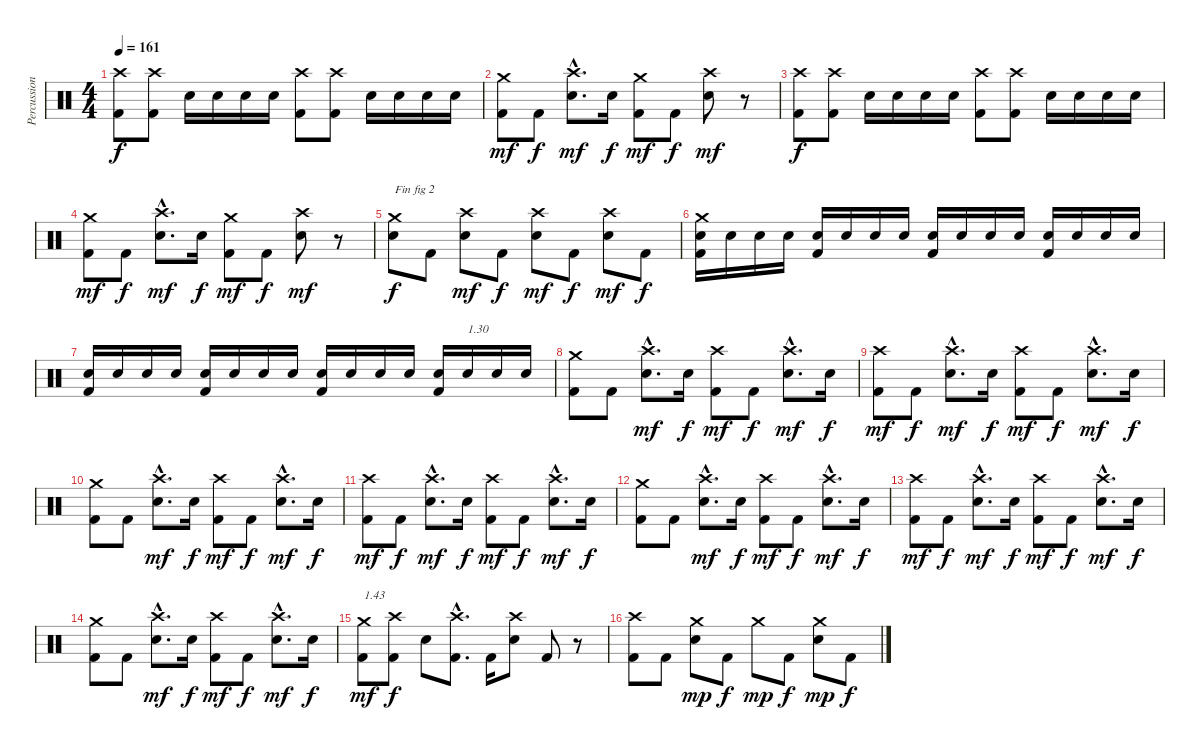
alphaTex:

\track ("Percussions" "Percussion") {instrument percussion}
\staff {score}
\articulation defaults
\ts (4 4)
\tempo 161
\clef neutral
\ks c
("Kick (hit) 2" "Crash high (hit)").8{dy f} ("Kick (hit) 2" "Crash high (hit)").8 "Electric Snare (hit)".16 "Electric Snare (hit)".16 "Electric Snare (hit)".16 "Electric Snare (hit)".16 ("Kick (hit) 2" "Crash high (hit)").8 ("Kick (hit) 2" "Crash high (hit)").8 "Electric Snare (hit)".16 "Electric Snare (hit)".16 "Electric Snare (hit)".16 "Electric Snare (hit)".16 |
("Kick (hit) 2" "Crash medium (hit)").8{dy mf} "Kick (hit) 2".8{dy f} ("Electric Snare (hit)"{hac} "Crash high (hit)"{hac}).8{d dy mf} "Electric Snare (hit)".16{dy f} ("Kick (hit) 2" "Crash medium (hit)").8{dy mf} "Kick (hit) 2".8{dy f} ("Electric Snare (hit)" "Crash high (hit)").8{dy mf} r.8 |
("Kick (hit) 2" "Crash high (hit)").8{dy f} ("Kick (hit) 2" "Crash high (hit)").8 "Electric Snare (hit)".16 "Electric Snare (hit)".16 "Electric Snare (hit)".16 "Electric Snare (hit)".16 ("Kick (hit) 2" "Crash high (hit)").8 ("Kick (hit) 2" "Crash high (hit)").8 "Electric Snare (hit)".16 "Electric Snare (hit)".16 "Electric Snare (hit)".16 "Electric Snare (hit)".16 |
("Kick (hit) 2" "Crash medium (hit)").8{dy mf} "Kick (hit) 2".8{dy f} ("Electric Snare (hit)"{hac} "Crash high (hit)"{hac}).8{d dy mf} "Electric Snare (hit)".16{dy f} ("Kick (hit) 2" "Crash medium (hit)").8{dy mf} "Kick (hit) 2".8{dy f} ("Electric Snare (hit)" "Crash high (hit)").8{dy mf} r.8 |
("Electric Snare (hit)" "Crash medium (hit)").8{txt "Fin fig 2" dy f} "Kick (hit) 2".8 ("Electric Snare (hit)" "Crash high (hit)").8{dy mf} "Kick (hit) 2".8{dy f} ("Electric Snare (hit)" "Crash high (hit)").8{dy mf} "Kick (hit) 2".8{dy f} ("Electric Snare (hit)" "Crash high (hit)").8{dy mf} "Kick (hit) 2".8{dy f} |
("Electric Snare (hit)" "Kick (hit) 2" "Crash medium (hit)").16 "Electric Snare (hit)".16 "Electric Snare (hit)".16 "Electric Snare (hit)".16 ("Electric Snare (hit)" "Kick (hit) 2").16 "Electric Snare (hit)".16 "Electric Snare (hit)".16 "Electric Snare (hit)".16 ("Electric Snare (hit)" "Kick (hit) 2").16 "Electric Snare (hit)".16 "Electric Snare (hit)".16 "Electric Snare (hit)".16 ("Electric Snare (hit)" "Kick (hit) 2").16 "Electric Snare (hit)".16 "Electric Snare (hit)".16 "Electric Snare (hit)".16 |
("Electric Snare (hit)" "Kick (hit) 2").16 "Electric Snare (hit)".16 "Electric Snare (hit)".16 "Electric Snare (hit)".16 ("Electric Snare (hit)" "Kick (hit) 2").16 "Electric Snare (hit)".16 "Electric Snare (hit)".16 "Electric Snare (hit)".16 ("Electric Snare (hit)" "Kick (hit) 2").16 "Electric Snare (hit)".16 "Electric Snare (hit)".16 "Electric Snare (hit)".16 ("Electric Snare (hit)" "Kick (hit) 2").16 "Electric Snare (hit)".16{txt "1.30"} "Electric Snare (hit)".16 "Electric Snare (hit)".16 |
("Kick (hit) 2" "Crash medium (hit)").8 "Kick (hit) 2".8 ("Electric Snare (hit)"{hac} "Crash high (hit)"{hac}).8{d dy mf} "Electric Snare (hit)".16{dy f} ("Kick (hit) 2" "Crash high (hit)").8{dy mf} "Kick (hit) 2".8{dy f} ("Electric Snare (hit)"{hac} "Crash high (hit)"{hac}).8{d dy mf} "Electric Snare (hit)".16{dy f} |
("Kick (hit) 2" "Crash high (hit)").8{dy mf} "Kick (hit) 2".8{dy f} ("Electric Snare (hit)"{hac} "Crash high (hit)"{hac}).8{d dy mf} "Electric Snare (hit)".16{dy f} ("Kick (hit) 2" "Crash high (hit)").8{dy mf} "Kick (hit) 2".8{dy f} ("Electric Snare (hit)"{hac} "Crash high (hit)"{hac}).8{d dy mf} "Electric Snare (hit)".16{dy f} |
("Kick (hit) 2" "Crash medium (hit)").8 "Kick (hit) 2".8 ("Electric Snare (hit)"{hac} "Crash high (hit)"{hac}).8{d dy mf} "Electric Snare (hit)".16{dy f} ("Kick (hit) 2" "Crash high (hit)").8{dy mf} "Kick (hit) 2".8{dy f} ("Electric Snare (hit)"{hac} "Crash high (hit)"{hac}).8{d dy mf} "Electric Snare (hit)".16{dy f} |
("Kick (hit) 2" "Crash high (hit)").8{dy mf} "Kick (hit) 2".8{dy f} ("Electric Snare (hit)"{hac} "Crash high (hit)"{hac}).8{d dy mf} "Electric Snare (hit)".16{dy f} ("Kick (hit) 2" "Crash high (hit)").8{dy mf} "Kick (hit) 2".8{dy f} ("Electric Snare (hit)"{hac} "Crash high (hit)"{hac}).8{d dy mf} "Electric Snare (hit)".16{dy f} |
("Kick (hit) 2" "Crash medium (hit)").8 "Kick (hit) 2".8 ("Electric Snare (hit)"{hac} "Crash high (hit)"{hac}).8{d dy mf} "Electric Snare (hit)".16{dy f} ("Kick (hit) 2" "Crash high (hit)").8{dy mf} "Kick (hit) 2".8{dy f} ("Electric Snare (hit)"{hac} "Crash high (hit)"{hac}).8{d dy mf} "Electric Snare (hit)".16{dy f} |
("Kick (hit) 2" "Crash high (hit)").8{dy mf} "Kick (hit) 2".8{dy f} ("Electric Snare (hit)"{hac} "Crash high (hit)"{hac}).8{d dy mf} "Electric Snare (hit)".16{dy f} ("Kick (hit) 2" "Crash high (hit)").8{dy mf} "Kick (hit) 2".8{dy f} ("Electric Snare (hit)"{hac} "Crash high (hit)"{hac}).8{d dy mf} "Electric Snare (hit)".16{dy f} |
("Kick (hit) 2" "Crash medium (hit)").8 "Kick (hit) 2".8 ("Electric Snare (hit)"{hac} "Crash high (hit)"{hac}).8{d dy mf} "Electric Snare (hit)".16{dy f} ("Kick (hit) 2" "Crash high (hit)").8{dy mf} "Kick (hit) 2".8{dy f} ("Electric Snare (hit)"{hac} "Crash high (hit)"{hac}).8{d dy mf} "Electric Snare (hit)".16{dy f} |
("Kick (hit) 2" "Crash medium (hit)").8{txt "1.43" dy mf} ("Kick (hit) 2" "Crash high (hit)").8{dy f} "Electric Snare (hit)".8 ("Kick (hit) 2"{hac} "Crash high (hit)"{hac}).8{d} "Kick (hit) 2".16 ("Electric Snare (hit)" "Crash high (hit)").8 "Kick (hit) 2".8 r.8 |
("Kick (hit) 2" "Crash high (hit)").8 "Kick (hit) 2".8 ("Electric Snare (hit)" "Crash medium (hit)").8{dy mp} "Kick (hit) 2".8{dy f} "Crash medium (hit)".8{dy mp} "Kick (hit) 2".8{dy f} ("Electric Snare (hit)" "Crash medium (hit)").8{dy mp} "Kick (hit) 2".8{dy f}
